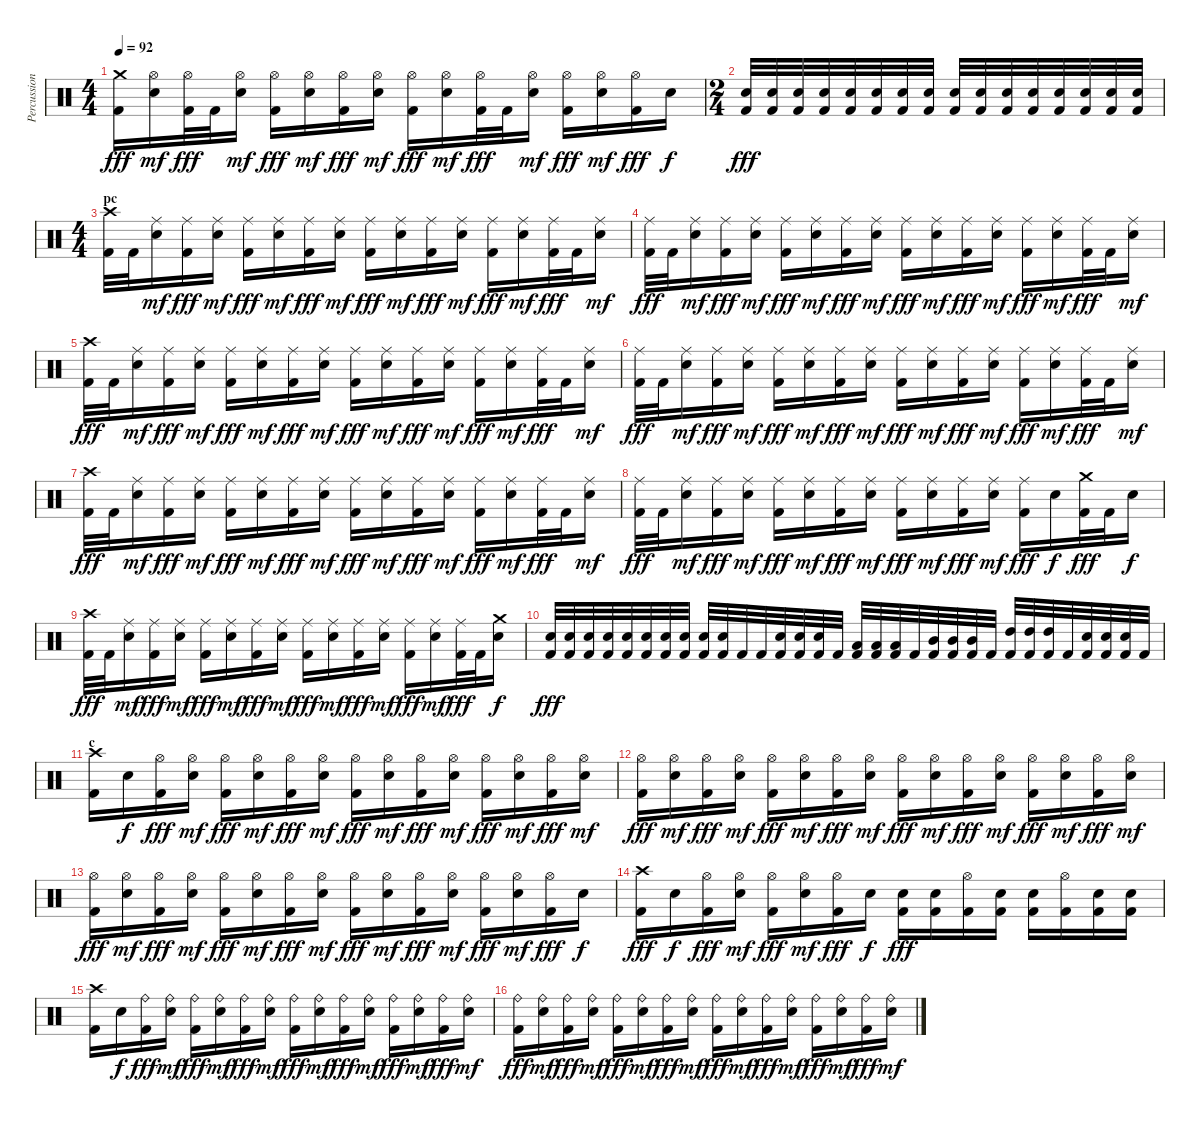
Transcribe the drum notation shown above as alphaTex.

\track ("Percussion" "Percussion") {instrument percussion}
\staff {score}
\articulation defaults
\ts (4 4)
\tempo 92
\clef neutral
\ks c
("Crash medium (hit)" "Kick (hit) 2").16{dy fff} ("Hi-Hat (open)" "Electric Snare (hit)").16{dy mf} ("Hi-Hat (open)" "Kick (hit) 2").32{dy fff} "Kick (hit) 2".32 ("Hi-Hat (open)" "Electric Snare (hit)").16{dy mf} ("Hi-Hat (open)" "Kick (hit) 2").16{dy fff} ("Hi-Hat (open)" "Electric Snare (hit)").16{dy mf} ("Hi-Hat (open)" "Kick (hit) 2").16{dy fff} ("Hi-Hat (open)" "Electric Snare (hit)").16{dy mf} ("Hi-Hat (open)" "Kick (hit) 2").16{dy fff} ("Hi-Hat (open)" "Electric Snare (hit)").16{dy mf} ("Hi-Hat (open)" "Kick (hit) 2").32{dy fff} "Kick (hit) 2".32 ("Hi-Hat (open)" "Electric Snare (hit)").16{dy mf} ("Hi-Hat (open)" "Kick (hit) 2").16{dy fff} ("Hi-Hat (open)" "Electric Snare (hit)").16{dy mf} ("Hi-Hat (open)" "Kick (hit) 2").16{dy fff} "Electric Snare (hit)".16{dy f} |
\ts (2 4)
("Electric Snare (hit)" "Kick (hit) 2").32{dy fff} ("Electric Snare (hit)" "Kick (hit) 2").32 ("Electric Snare (hit)" "Kick (hit) 2").32 ("Electric Snare (hit)" "Kick (hit) 2").32 ("Electric Snare (hit)" "Kick (hit) 2").32 ("Electric Snare (hit)" "Kick (hit) 2").32 ("Electric Snare (hit)" "Kick (hit) 2").32 ("Electric Snare (hit)" "Kick (hit) 2").32 ("Electric Snare (hit)" "Kick (hit) 2").32 ("Electric Snare (hit)" "Kick (hit) 2").32 ("Electric Snare (hit)" "Kick (hit) 2").32 ("Electric Snare (hit)" "Kick (hit) 2").32 ("Electric Snare (hit)" "Kick (hit) 2").32 ("Electric Snare (hit)" "Kick (hit) 2").32 ("Electric Snare (hit)" "Kick (hit) 2").32 ("Electric Snare (hit)" "Kick (hit) 2").32 |
\ts (4 4)
\section ("" "pc")
("Crash high (hit)" "Kick (hit) 2").32 "Kick (hit) 2".32 ("Ride (middle)" "Electric Snare (hit)").16{dy mf} ("Ride (middle)" "Kick (hit) 2").16{dy fff} ("Ride (middle)" "Electric Snare (hit)").16{dy mf} ("Ride (middle)" "Kick (hit) 2").16{dy fff} ("Ride (middle)" "Electric Snare (hit)").16{dy mf} ("Ride (middle)" "Kick (hit) 2").16{dy fff} ("Ride (middle)" "Electric Snare (hit)").16{dy mf} ("Ride (middle)" "Kick (hit) 2").16{dy fff} ("Ride (middle)" "Electric Snare (hit)").16{dy mf} ("Ride (middle)" "Kick (hit) 2").16{dy fff} ("Ride (middle)" "Electric Snare (hit)").16{dy mf} ("Ride (middle)" "Kick (hit) 2").16{dy fff} ("Ride (middle)" "Electric Snare (hit)").16{dy mf} ("Ride (middle)" "Kick (hit) 2").32{dy fff} "Kick (hit) 2".32 ("Ride (middle)" "Electric Snare (hit)").16{dy mf} |
("Ride (middle)" "Kick (hit) 2").32{dy fff} "Kick (hit) 2".32 ("Ride (middle)" "Electric Snare (hit)").16{dy mf} ("Ride (middle)" "Kick (hit) 2").16{dy fff} ("Ride (middle)" "Electric Snare (hit)").16{dy mf} ("Ride (middle)" "Kick (hit) 2").16{dy fff} ("Ride (middle)" "Electric Snare (hit)").16{dy mf} ("Ride (middle)" "Kick (hit) 2").16{dy fff} ("Ride (middle)" "Electric Snare (hit)").16{dy mf} ("Ride (middle)" "Kick (hit) 2").16{dy fff} ("Ride (middle)" "Electric Snare (hit)").16{dy mf} ("Ride (middle)" "Kick (hit) 2").16{dy fff} ("Ride (middle)" "Electric Snare (hit)").16{dy mf} ("Ride (middle)" "Kick (hit) 2").16{dy fff} ("Ride (middle)" "Electric Snare (hit)").16{dy mf} ("Ride (middle)" "Kick (hit) 2").32{dy fff} "Kick (hit) 2".32 ("Ride (middle)" "Electric Snare (hit)").16{dy mf} |
("Crash high (hit)" "Kick (hit) 2").32{dy fff} "Kick (hit) 2".32 ("Ride (middle)" "Electric Snare (hit)").16{dy mf} ("Ride (middle)" "Kick (hit) 2").16{dy fff} ("Ride (middle)" "Electric Snare (hit)").16{dy mf} ("Ride (middle)" "Kick (hit) 2").16{dy fff} ("Ride (middle)" "Electric Snare (hit)").16{dy mf} ("Ride (middle)" "Kick (hit) 2").16{dy fff} ("Ride (middle)" "Electric Snare (hit)").16{dy mf} ("Ride (middle)" "Kick (hit) 2").16{dy fff} ("Ride (middle)" "Electric Snare (hit)").16{dy mf} ("Ride (middle)" "Kick (hit) 2").16{dy fff} ("Ride (middle)" "Electric Snare (hit)").16{dy mf} ("Ride (middle)" "Kick (hit) 2").16{dy fff} ("Ride (middle)" "Electric Snare (hit)").16{dy mf} ("Ride (middle)" "Kick (hit) 2").32{dy fff} "Kick (hit) 2".32 ("Ride (middle)" "Electric Snare (hit)").16{dy mf} |
("Ride (middle)" "Kick (hit) 2").32{dy fff} "Kick (hit) 2".32 ("Ride (middle)" "Electric Snare (hit)").16{dy mf} ("Ride (middle)" "Kick (hit) 2").16{dy fff} ("Ride (middle)" "Electric Snare (hit)").16{dy mf} ("Ride (middle)" "Kick (hit) 2").16{dy fff} ("Ride (middle)" "Electric Snare (hit)").16{dy mf} ("Ride (middle)" "Kick (hit) 2").16{dy fff} ("Ride (middle)" "Electric Snare (hit)").16{dy mf} ("Ride (middle)" "Kick (hit) 2").16{dy fff} ("Ride (middle)" "Electric Snare (hit)").16{dy mf} ("Ride (middle)" "Kick (hit) 2").16{dy fff} ("Ride (middle)" "Electric Snare (hit)").16{dy mf} ("Ride (middle)" "Kick (hit) 2").16{dy fff} ("Ride (middle)" "Electric Snare (hit)").16{dy mf} ("Ride (middle)" "Kick (hit) 2").32{dy fff} "Kick (hit) 2".32 ("Ride (middle)" "Electric Snare (hit)").16{dy mf} |
("Crash high (hit)" "Kick (hit) 2").32{dy fff} "Kick (hit) 2".32 ("Ride (middle)" "Electric Snare (hit)").16{dy mf} ("Ride (middle)" "Kick (hit) 2").16{dy fff} ("Ride (middle)" "Electric Snare (hit)").16{dy mf} ("Ride (middle)" "Kick (hit) 2").16{dy fff} ("Ride (middle)" "Electric Snare (hit)").16{dy mf} ("Ride (middle)" "Kick (hit) 2").16{dy fff} ("Ride (middle)" "Electric Snare (hit)").16{dy mf} ("Ride (middle)" "Kick (hit) 2").16{dy fff} ("Ride (middle)" "Electric Snare (hit)").16{dy mf} ("Ride (middle)" "Kick (hit) 2").16{dy fff} ("Ride (middle)" "Electric Snare (hit)").16{dy mf} ("Ride (middle)" "Kick (hit) 2").16{dy fff} ("Ride (middle)" "Electric Snare (hit)").16{dy mf} ("Ride (middle)" "Kick (hit) 2").32{dy fff} "Kick (hit) 2".32 ("Ride (middle)" "Electric Snare (hit)").16{dy mf} |
("Ride (middle)" "Kick (hit) 2").32{dy fff} "Kick (hit) 2".32 ("Ride (middle)" "Electric Snare (hit)").16{dy mf} ("Ride (middle)" "Kick (hit) 2").16{dy fff} ("Ride (middle)" "Electric Snare (hit)").16{dy mf} ("Ride (middle)" "Kick (hit) 2").16{dy fff} ("Ride (middle)" "Electric Snare (hit)").16{dy mf} ("Ride (middle)" "Kick (hit) 2").16{dy fff} ("Ride (middle)" "Electric Snare (hit)").16{dy mf} ("Ride (middle)" "Kick (hit) 2").16{dy fff} ("Ride (middle)" "Electric Snare (hit)").16{dy mf} ("Ride (middle)" "Kick (hit) 2").16{dy fff} ("Ride (middle)" "Electric Snare (hit)").16{dy mf} ("Ride (middle)" "Kick (hit) 2").16{dy fff} "Electric Snare (hit)".16{dy f} ("Crash medium (hit)" "Kick (hit) 2").32{dy fff} "Kick (hit) 2".32 "Electric Snare (hit)".16{dy f} |
("Crash high (hit)" "Kick (hit) 2").32{dy fff} "Kick (hit) 2".32 ("Ride (middle)" "Electric Snare (hit)").16{dy mf} ("Ride (middle)" "Kick (hit) 2").16{dy fff} ("Ride (middle)" "Electric Snare (hit)").16{dy mf} ("Ride (middle)" "Kick (hit) 2").16{dy fff} ("Ride (middle)" "Electric Snare (hit)").16{dy mf} ("Ride (middle)" "Kick (hit) 2").16{dy fff} ("Ride (middle)" "Electric Snare (hit)").16{dy mf} ("Ride (middle)" "Kick (hit) 2").16{dy fff} ("Ride (middle)" "Electric Snare (hit)").16{dy mf} ("Ride (middle)" "Kick (hit) 2").16{dy fff} ("Ride (middle)" "Electric Snare (hit)").16{dy mf} ("Ride (middle)" "Kick (hit) 2").16{dy fff} ("Ride (middle)" "Electric Snare (hit)").16{dy mf} ("Ride (middle)" "Kick (hit) 2").32{dy fff} "Kick (hit) 2".32 ("Crash medium (hit)" "Electric Snare (hit)").16{dy f} |
("Electric Snare (hit)" "Kick (hit) 2").32{dy fff} ("Electric Snare (hit)" "Kick (hit) 2").32 ("Electric Snare (hit)" "Kick (hit) 2").32 ("Electric Snare (hit)" "Kick (hit) 2").32 ("Electric Snare (hit)" "Kick (hit) 2").32 ("Electric Snare (hit)" "Kick (hit) 2").32 ("Electric Snare (hit)" "Kick (hit) 2").32 ("Electric Snare (hit)" "Kick (hit) 2").32 ("Electric Snare (hit)" "Kick (hit) 2").32 ("Electric Snare (hit)" "Kick (hit) 2").32 "Kick (hit) 2".32 "Kick (hit) 2".32 ("Electric Snare (hit)" "Kick (hit) 2").32 ("Electric Snare (hit)" "Kick (hit) 2").32 ("Electric Snare (hit)" "Kick (hit) 2").32 "Kick (hit) 2".32 ("Low Tom (hit)" "Kick (hit) 2").32 ("Low Tom (hit)" "Kick (hit) 2").32 ("Low Tom (hit)" "Kick (hit) 2").32 "Kick (hit) 2".32 ("Mid Tom (hit)" "Kick (hit) 2").32 ("Mid Tom (hit)" "Kick (hit) 2").32 ("Mid Tom (hit)" "Kick (hit) 2").32 "Kick (hit) 2".32 ("High Tom (hit)" "Kick (hit) 2").32 ("High Tom (hit)" "Kick (hit) 2").32 ("High Tom (hit)" "Kick (hit) 2").32 "Kick (hit) 2".32 ("Electric Snare (hit)" "Kick (hit) 2").32 ("Electric Snare (hit)" "Kick (hit) 2").32 ("Electric Snare (hit)" "Kick (hit) 2").32 "Kick (hit) 2".32 |
\section ("" "c")
("Crash high (hit)" "Kick (hit) 2").16 "Electric Snare (hit)".16{dy f} ("Hi-Hat (open)" "Kick (hit) 2").16{dy fff} ("Hi-Hat (open)" "Electric Snare (hit)").16{dy mf} ("Hi-Hat (open)" "Kick (hit) 2").16{dy fff} ("Hi-Hat (open)" "Electric Snare (hit)").16{dy mf} ("Hi-Hat (open)" "Kick (hit) 2").16{dy fff} ("Hi-Hat (open)" "Electric Snare (hit)").16{dy mf} ("Hi-Hat (open)" "Kick (hit) 2").16{dy fff} ("Hi-Hat (open)" "Electric Snare (hit)").16{dy mf} ("Hi-Hat (open)" "Kick (hit) 2").16{dy fff} ("Hi-Hat (open)" "Electric Snare (hit)").16{dy mf} ("Hi-Hat (open)" "Kick (hit) 2").16{dy fff} ("Hi-Hat (open)" "Electric Snare (hit)").16{dy mf} ("Hi-Hat (open)" "Kick (hit) 2").16{dy fff} ("Hi-Hat (open)" "Electric Snare (hit)").16{dy mf} |
("Hi-Hat (open)" "Kick (hit) 2").16{dy fff} ("Hi-Hat (open)" "Electric Snare (hit)").16{dy mf} ("Hi-Hat (open)" "Kick (hit) 2").16{dy fff} ("Hi-Hat (open)" "Electric Snare (hit)").16{dy mf} ("Hi-Hat (open)" "Kick (hit) 2").16{dy fff} ("Hi-Hat (open)" "Electric Snare (hit)").16{dy mf} ("Hi-Hat (open)" "Kick (hit) 2").16{dy fff} ("Hi-Hat (open)" "Electric Snare (hit)").16{dy mf} ("Hi-Hat (open)" "Kick (hit) 2").16{dy fff} ("Hi-Hat (open)" "Electric Snare (hit)").16{dy mf} ("Hi-Hat (open)" "Kick (hit) 2").16{dy fff} ("Hi-Hat (open)" "Electric Snare (hit)").16{dy mf} ("Hi-Hat (open)" "Kick (hit) 2").16{dy fff} ("Hi-Hat (open)" "Electric Snare (hit)").16{dy mf} ("Hi-Hat (open)" "Kick (hit) 2").16{dy fff} ("Hi-Hat (open)" "Electric Snare (hit)").16{dy mf} |
("Hi-Hat (open)" "Kick (hit) 2").16{dy fff} ("Hi-Hat (open)" "Electric Snare (hit)").16{dy mf} ("Hi-Hat (open)" "Kick (hit) 2").16{dy fff} ("Hi-Hat (open)" "Electric Snare (hit)").16{dy mf} ("Hi-Hat (open)" "Kick (hit) 2").16{dy fff} ("Hi-Hat (open)" "Electric Snare (hit)").16{dy mf} ("Hi-Hat (open)" "Kick (hit) 2").16{dy fff} ("Hi-Hat (open)" "Electric Snare (hit)").16{dy mf} ("Hi-Hat (open)" "Kick (hit) 2").16{dy fff} ("Hi-Hat (open)" "Electric Snare (hit)").16{dy mf} ("Hi-Hat (open)" "Kick (hit) 2").16{dy fff} ("Hi-Hat (open)" "Electric Snare (hit)").16{dy mf} ("Hi-Hat (open)" "Kick (hit) 2").16{dy fff} ("Hi-Hat (open)" "Electric Snare (hit)").16{dy mf} ("Hi-Hat (open)" "Kick (hit) 2").16{dy fff} "Electric Snare (hit)".16{dy f} |
("Crash high (hit)" "Kick (hit) 2").16{dy fff} "Electric Snare (hit)".16{dy f} ("Hi-Hat (open)" "Kick (hit) 2").16{dy fff} ("Hi-Hat (open)" "Electric Snare (hit)").16{dy mf} ("Hi-Hat (open)" "Kick (hit) 2").16{dy fff} ("Hi-Hat (open)" "Electric Snare (hit)").16{dy mf} ("Hi-Hat (open)" "Kick (hit) 2").16{dy fff} "Electric Snare (hit)".16{dy f} ("Electric Snare (hit)" "Kick (hit) 2").16{dy fff} ("Electric Snare (hit)" "Kick (hit) 2").16 ("Hi-Hat (open)" "Kick (hit) 2").16 ("Electric Snare (hit)" "Kick (hit) 2").16 ("Electric Snare (hit)" "Kick (hit) 2").16 ("Hi-Hat (open)" "Kick (hit) 2").16 ("Electric Snare (hit)" "Kick (hit) 2").16 ("Electric Snare (hit)" "Kick (hit) 2").16 |
("Crash high (hit)" "Kick (hit) 2").16 "Electric Snare (hit)".16{dy f} ("Ride (bell)" "Kick (hit) 2").16{dy fff} ("Ride (bell)" "Electric Snare (hit)").16{dy mf} ("Ride (bell)" "Kick (hit) 2").16{dy fff} ("Ride (bell)" "Electric Snare (hit)").16{dy mf} ("Ride (bell)" "Kick (hit) 2").16{dy fff} ("Ride (bell)" "Electric Snare (hit)").16{dy mf} ("Ride (bell)" "Kick (hit) 2").16{dy fff} ("Ride (bell)" "Electric Snare (hit)").16{dy mf} ("Ride (bell)" "Kick (hit) 2").16{dy fff} ("Ride (bell)" "Electric Snare (hit)").16{dy mf} ("Ride (bell)" "Kick (hit) 2").16{dy fff} ("Ride (bell)" "Electric Snare (hit)").16{dy mf} ("Ride (bell)" "Kick (hit) 2").16{dy fff} ("Ride (bell)" "Electric Snare (hit)").16{dy mf} |
("Ride (bell)" "Kick (hit) 2").16{dy fff} ("Ride (bell)" "Electric Snare (hit)").16{dy mf} ("Ride (bell)" "Kick (hit) 2").16{dy fff} ("Ride (bell)" "Electric Snare (hit)").16{dy mf} ("Ride (bell)" "Kick (hit) 2").16{dy fff} ("Ride (bell)" "Electric Snare (hit)").16{dy mf} ("Ride (bell)" "Kick (hit) 2").16{dy fff} ("Ride (bell)" "Electric Snare (hit)").16{dy mf} ("Ride (bell)" "Kick (hit) 2").16{dy fff} ("Ride (bell)" "Electric Snare (hit)").16{dy mf} ("Ride (bell)" "Kick (hit) 2").16{dy fff} ("Ride (bell)" "Electric Snare (hit)").16{dy mf} ("Ride (bell)" "Kick (hit) 2").16{dy fff} ("Ride (bell)" "Electric Snare (hit)").16{dy mf} ("Ride (bell)" "Kick (hit) 2").16{dy fff} ("Ride (bell)" "Electric Snare (hit)").16{dy mf}
